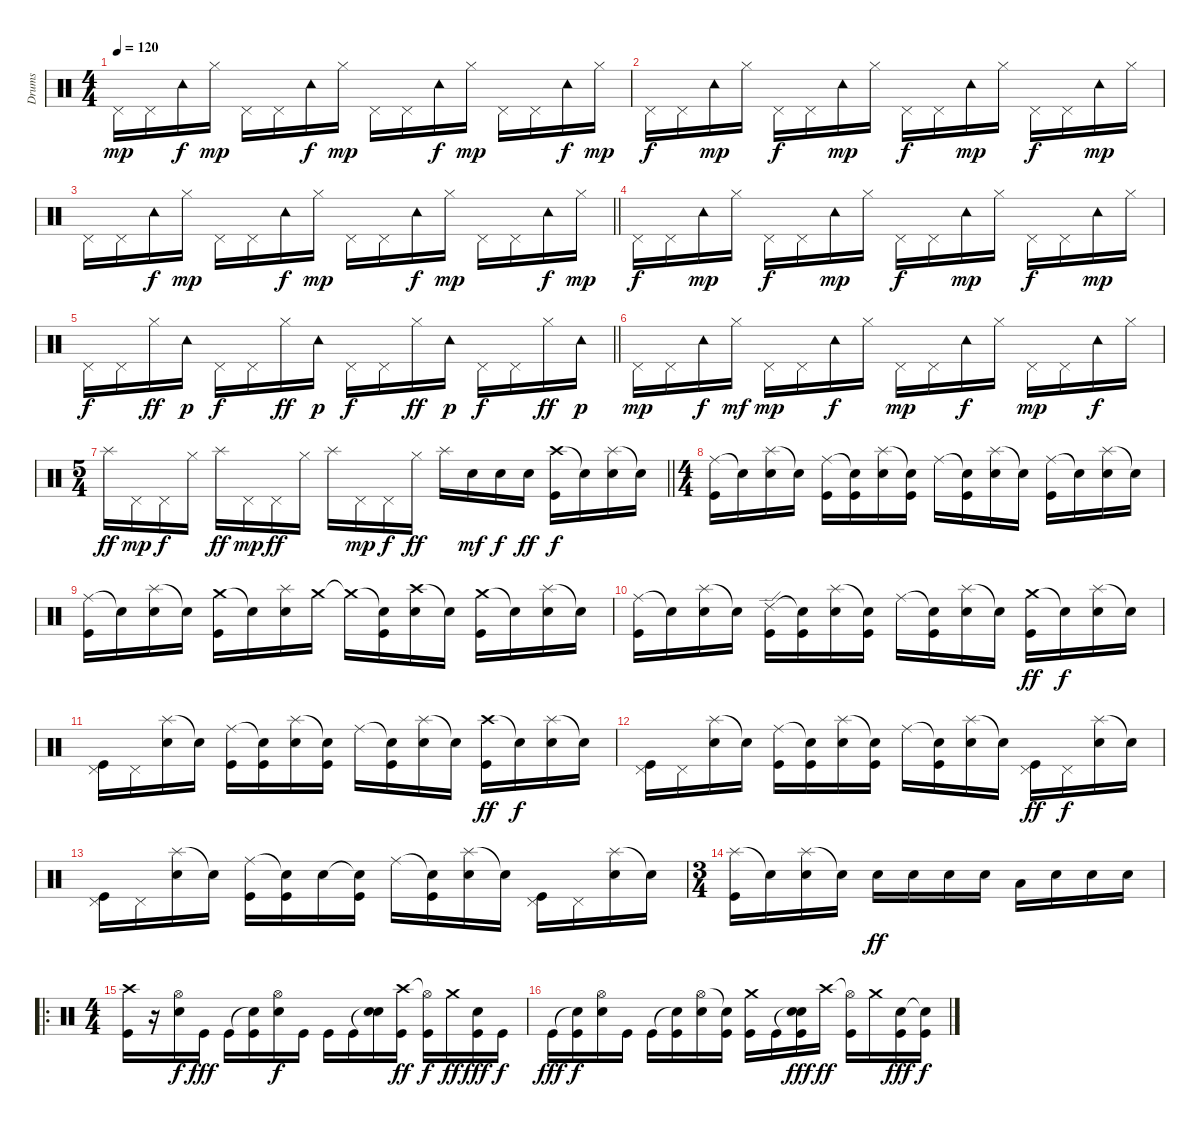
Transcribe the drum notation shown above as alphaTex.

\track ("Drums" "Drums") {instrument percussion}
\staff {score}
\articulation defaults
\ts (4 4)
\tempo 120
\clef neutral
\ks c "Pedal Hi-Hat (hit)".16{dy mp} "Pedal Hi-Hat (hit)".16 "Tambourine (hit)".16{dy f} "Hi-Hat (closed)".16{dy mp} "Pedal Hi-Hat (hit)".16 "Pedal Hi-Hat (hit)".16 "Tambourine (hit)".16{dy f} "Hi-Hat (closed)".16{dy mp} "Pedal Hi-Hat (hit)".16 "Pedal Hi-Hat (hit)".16 "Tambourine (hit)".16{dy f} "Hi-Hat (closed)".16{dy mp} "Pedal Hi-Hat (hit)".16 "Pedal Hi-Hat (hit)".16 "Tambourine (hit)".16{dy f} "Hi-Hat (closed)".16{dy mp}
|
"Pedal Hi-Hat (hit)".16{dy f} "Pedal Hi-Hat (hit)".16 "Tambourine (hit)".16{dy mp} "Hi-Hat (closed)".16 "Pedal Hi-Hat (hit)".16{dy f} "Pedal Hi-Hat (hit)".16 "Tambourine (hit)".16{dy mp} "Hi-Hat (closed)".16 "Pedal Hi-Hat (hit)".16{dy f} "Pedal Hi-Hat (hit)".16 "Tambourine (hit)".16{dy mp} "Hi-Hat (closed)".16 "Pedal Hi-Hat (hit)".16{dy f} "Pedal Hi-Hat (hit)".16 "Tambourine (hit)".16{dy mp} "Hi-Hat (closed)".16 |
\barLineRight lightlight "Pedal Hi-Hat (hit)".16 "Pedal Hi-Hat (hit)".16 "Tambourine (hit)".16{dy f} "Hi-Hat (closed)".16{dy mp} "Pedal Hi-Hat (hit)".16 "Pedal Hi-Hat (hit)".16 "Tambourine (hit)".16{dy f} "Hi-Hat (closed)".16{dy mp} "Pedal Hi-Hat (hit)".16 "Pedal Hi-Hat (hit)".16 "Tambourine (hit)".16{dy f} "Hi-Hat (closed)".16{dy mp} "Pedal Hi-Hat (hit)".16 "Pedal Hi-Hat (hit)".16 "Tambourine (hit)".16{dy f} "Hi-Hat (closed)".16{dy mp}
|
"Pedal Hi-Hat (hit)".16{dy f} "Pedal Hi-Hat (hit)".16 "Tambourine (hit)".16{dy mp} "Hi-Hat (closed)".16 "Pedal Hi-Hat (hit)".16{dy f} "Pedal Hi-Hat (hit)".16 "Tambourine (hit)".16{dy mp} "Hi-Hat (closed)".16 "Pedal Hi-Hat (hit)".16{dy f} "Pedal Hi-Hat (hit)".16 "Tambourine (hit)".16{dy mp} "Hi-Hat (closed)".16 "Pedal Hi-Hat (hit)".16{dy f} "Pedal Hi-Hat (hit)".16 "Tambourine (hit)".16{dy mp} "Hi-Hat (closed)".16 |
\barLineRight lightlight "Pedal Hi-Hat (hit)".16{dy f} "Pedal Hi-Hat (hit)".16 "Hi-Hat (closed)".16{dy ff} "Tambourine (hit)".16{dy p} "Pedal Hi-Hat (hit)".16{dy f} "Pedal Hi-Hat (hit)".16 "Hi-Hat (closed)".16{dy ff} "Tambourine (hit)".16{dy p} "Pedal Hi-Hat (hit)".16{dy f} "Pedal Hi-Hat (hit)".16 "Hi-Hat (closed)".16{dy ff} "Tambourine (hit)".16{dy p} "Pedal Hi-Hat (hit)".16{dy f} "Pedal Hi-Hat (hit)".16 "Hi-Hat (closed)".16{dy ff} "Tambourine (hit)".16{dy p}
|
"Pedal Hi-Hat (hit)".16{dy mp} "Pedal Hi-Hat (hit)".16 "Tambourine (hit)".16{dy f} "Hi-Hat (closed)".16{dy mf} "Pedal Hi-Hat (hit)".16{dy mp} "Pedal Hi-Hat (hit)".16 "Tambourine (hit)".16{dy f} "Hi-Hat (closed)".16 "Pedal Hi-Hat (hit)".16{dy mp} "Pedal Hi-Hat (hit)".16 "Tambourine (hit)".16{dy f} "Hi-Hat (closed)".16 "Pedal Hi-Hat (hit)".16{dy mp} "Pedal Hi-Hat (hit)".16 "Tambourine (hit)".16{dy f} "Hi-Hat (closed)".16 |
\ts (5 4)
\barLineRight lightlight "Splash (hit)".16{dy ff} "Pedal Hi-Hat (hit)".16{dy mp} "Pedal Hi-Hat (hit)".16{dy f} "Hi-Hat (closed)".16 "Splash (hit)".16{dy ff} "Pedal Hi-Hat (hit)".16{dy mp} "Pedal Hi-Hat (hit)".16{dy ff} "Hi-Hat (closed)".16 "Splash (hit)".16 "Pedal Hi-Hat (hit)".16{dy mp} "Pedal Hi-Hat (hit)".16{dy f} "Hi-Hat (closed)".16{dy ff} "Splash (hit)".16 "Snare (hit) 2".16{dy mf} "Snare (hit) 2".16{dy f} "Snare (hit) 2".16{dy ff}
("Crash high (hit)" "Kick (hit)").16{dy f} "Snare (hit)"{t}.16 ("Splash (hit)" "Electric Snare (hit)").16 "Snare (hit)"{t}.16 |
\ts (4 4)
\section ("" "")
("Ride (middle)" "Kick (hit)").16 "Snare (hit)"{t}.16 ("Splash (hit)" "Electric Snare (hit)").16 "Snare (hit)"{t}.16 ("Ride (middle)" "Kick (hit)").16 ("Snare (hit)"{t} "Kick (hit)").16 ("Splash (hit)" "Electric Snare (hit)").16 ("Snare (hit)"{t} "Kick (hit)").16 "Ride (middle)".16 ("Snare (hit)"{t} "Kick (hit)").16 ("Splash (hit)" "Electric Snare (hit)").16 "Snare (hit)"{t}.16 ("Ride (middle)" "Kick (hit)").16 "Snare (hit)"{t}.16 ("Splash (hit)" "Electric Snare (hit)").16 "Snare (hit)"{t}.16 |
("Ride (middle)" "Kick (hit)").16 "Snare (hit)"{t}.16 ("Splash (hit)" "Electric Snare (hit)").16 "Snare (hit)"{t}.16 ("Crash medium (hit)" "Kick (hit)").16 "Snare (hit)"{t}.16 ("Splash (hit)" "Electric Snare (hit)").16 "Crash medium (hit)".16 "Crash medium (hit)"{t}.16 ("Snare (hit)"{t} "Kick (hit)").16 ("Crash high (hit)" "Electric Snare (hit)").16 "Snare (hit)"{t}.16 ("Crash medium (hit)" "Kick (hit)").16 "Snare (hit)"{t}.16 ("Splash (hit)" "Electric Snare (hit)").16 "Snare (hit)"{t}.16 |
("Ride (middle)" "Kick (hit)").16 "Snare (hit)"{t}.16 ("Splash (hit)" "Electric Snare (hit)").16 "Snare (hit)"{t}.16 ("Ride (edge) 2" "Kick (hit)").16 ("Snare (hit)"{t} "Kick (hit)").16 ("Splash (hit)" "Electric Snare (hit)").16 ("Snare (hit)"{t} "Kick (hit)").16 "Ride (middle)".16 ("Snare (hit)"{t} "Kick (hit)").16 ("Splash (hit)" "Electric Snare (hit)").16 "Snare (hit)"{t}.16 ("Crash medium (hit)" "Kick (hit)").16{dy ff} "Snare (hit)"{t}.16{dy f} ("Splash (hit)" "Electric Snare (hit)").16 "Snare (hit)"{t}.16 |
("Pedal Hi-Hat (hit)" "Kick (hit)").16 "Pedal Hi-Hat (hit)".16 ("Splash (hit)" "Electric Snare (hit)").16 "Snare (hit)"{t}.16 ("Ride (middle)" "Kick (hit)").16 ("Snare (hit)"{t} "Kick (hit)").16 ("Splash (hit)" "Electric Snare (hit)").16 ("Snare (hit)"{t} "Kick (hit)").16 "Ride (middle)".16 ("Snare (hit)"{t} "Kick (hit)").16 ("Splash (hit)" "Electric Snare (hit)").16 "Snare (hit)"{t}.16 ("Crash high (hit)" "Kick (hit)").16{dy ff} "Snare (hit)"{t}.16{dy f} ("Splash (hit)" "Electric Snare (hit)").16 "Snare (hit)"{t}.16 |
("Pedal Hi-Hat (hit)" "Kick (hit)").16 "Pedal Hi-Hat (hit)".16 ("Splash (hit)" "Electric Snare (hit)").16 "Snare (hit)"{t}.16 ("Ride (middle)" "Kick (hit)").16 ("Snare (hit)"{t} "Kick (hit)").16 ("Splash (hit)" "Electric Snare (hit)").16 ("Snare (hit)"{t} "Kick (hit)").16 "Ride (middle)".16 ("Snare (hit)"{t} "Kick (hit)").16 ("Splash (hit)" "Electric Snare (hit)").16 "Snare (hit)"{t}.16 ("Pedal Hi-Hat (hit)" "Kick (hit)").16{dy ff} "Pedal Hi-Hat (hit)".16{dy f} ("Splash (hit)" "Electric Snare (hit)").16 "Snare (hit)"{t}.16 |
("Pedal Hi-Hat (hit)" "Kick (hit)").16 "Pedal Hi-Hat (hit)".16 ("Splash (hit)" "Electric Snare (hit)").16 "Snare (hit)"{t}.16 ("Ride (middle)" "Kick (hit)").16 ("Snare (hit)"{t} "Kick (hit)").16 "Electric Snare (hit)".16 ("Snare (hit)"{t} "Kick (hit)").16 "Ride (middle)".16 ("Snare (hit)"{t} "Kick (hit)").16 ("Splash (hit)" "Electric Snare (hit)").16 "Snare (hit)"{t}.16 ("Pedal Hi-Hat (hit)" "Kick (hit)").16 "Pedal Hi-Hat (hit)".16 ("Splash (hit)" "Electric Snare (hit)").16 "Snare (hit)"{t}.16 |
\ts (3 4)
("Splash (hit)" "Kick (hit)").16 "Snare (hit)"{t}.16 ("Splash (hit)" "Electric Snare (hit)").16 "Snare (hit)"{t}.16 "Snare (hit) 2".16{dy ff} "Snare (hit) 2".16 "Snare (hit) 2".16 "Snare (hit) 2".16 "Low Tom (hit)".16 "Snare (hit) 2".16 "Snare (hit) 2".16 "Snare (hit) 2".16 |
\ro
\ts (4 4)
("Crash high (hit)" "Kick (hit)").16 r.16 ("Hi-Hat (open)" "Electric Snare (hit)").16{dy f} "Kick (hit)".16{dy fff} "Kick (hit)".16 ("Snare (hit)"{t} "Kick (hit)").16 ("Hi-Hat (open)" "Electric Snare (hit)").16{dy f} "Kick (hit)".16 "Kick (hit)".16 "Kick (hit)".16 ("Snare (hit)"{t} "Electric Snare (hit)").16 ("Crash high (hit)" "Kick (hit)").16{dy ff} ("Hi-Hat (open)"{t} "Kick (hit)").16{dy f} "Crash medium (hit)".16{dy ff} ("Electric Snare (hit)" "Kick (hit)").16{dy fff} "Kick (hit)".16{dy f} |
"Kick (hit)".16{dy fff} ("Snare (hit)"{t} "Kick (hit)").16{dy f} ("Hi-Hat (open)" "Electric Snare (hit)").16 "Kick (hit)".16 "Kick (hit)".16 ("Snare (hit)"{t} "Kick (hit)").16 ("Hi-Hat (open)" "Electric Snare (hit)").16 ("Snare (hit)"{t} "Kick (hit)").16 ("Crash medium (hit)" "Kick (hit)").16 "Kick (hit)".16 ("Snare (hit)"{t} "Electric Snare (hit)" "Kick (hit)").16{dy fff} "Crash high (hit)".16{dy ff} ("Hi-Hat (open)"{t} "Kick (hit)").16 "Crash medium (hit)".16 ("Electric Snare (hit)" "Kick (hit)").16{dy fff} ("Snare (hit)"{t} "Kick (hit)").16{dy f}
